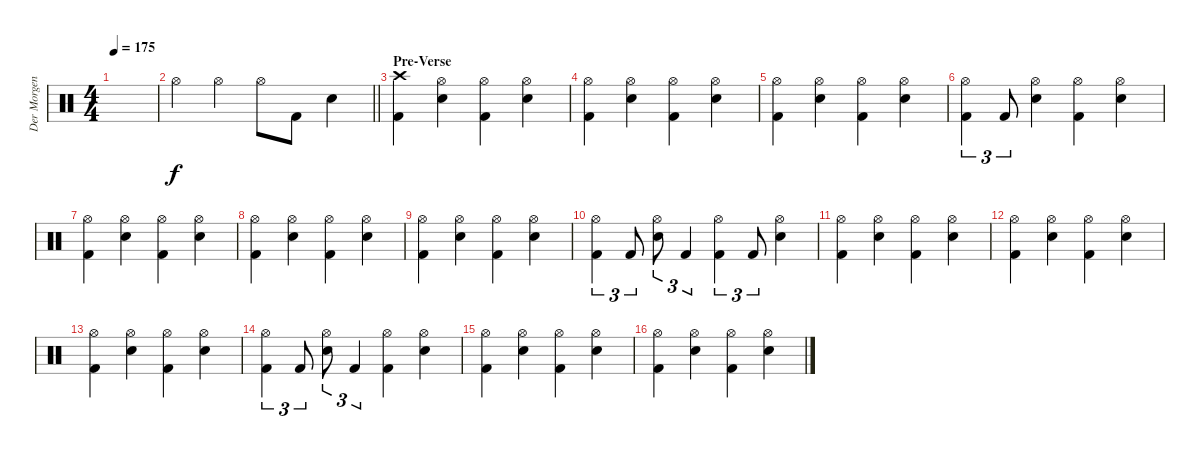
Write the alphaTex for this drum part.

\track ("Der Morgenstern" "Der Morgen") {instrument percussion}
\staff {score}
\articulation defaults
\ts (4 4)
\tempo 175
\clef neutral
\ks c
|
\barLineRight lightlight "Hi-Hat (open)".4 "Hi-Hat (open)".4 "Hi-Hat (open)".8 "Kick (hit) 2".8 "Electric Snare (hit)".4
|
\section ("" "Pre-Verse")
("Crash high (hit)" "Kick (hit) 2").4 ("Hi-Hat (open)" "Electric Snare (hit)").4 ("Hi-Hat (open)" "Kick (hit) 2").4 ("Hi-Hat (open)" "Electric Snare (hit)").4 |
("Hi-Hat (open)" "Kick (hit) 2").4 ("Hi-Hat (open)" "Electric Snare (hit)").4 ("Hi-Hat (open)" "Kick (hit) 2").4 ("Hi-Hat (open)" "Electric Snare (hit)").4 |
("Hi-Hat (open)" "Kick (hit) 2").4 ("Hi-Hat (open)" "Electric Snare (hit)").4 ("Hi-Hat (open)" "Kick (hit) 2").4 ("Hi-Hat (open)" "Electric Snare (hit)").4 |
("Hi-Hat (open)" "Kick (hit) 2").4{tu (3 2)} "Kick (hit) 2".8{tu (3 2)} ("Hi-Hat (open)" "Electric Snare (hit)").4 ("Hi-Hat (open)" "Kick (hit) 2").4 ("Hi-Hat (open)" "Electric Snare (hit)").4 |
("Hi-Hat (open)" "Kick (hit) 2").4 ("Hi-Hat (open)" "Electric Snare (hit)").4 ("Hi-Hat (open)" "Kick (hit) 2").4 ("Hi-Hat (open)" "Electric Snare (hit)").4 |
("Hi-Hat (open)" "Kick (hit) 2").4 ("Hi-Hat (open)" "Electric Snare (hit)").4 ("Hi-Hat (open)" "Kick (hit) 2").4 ("Hi-Hat (open)" "Electric Snare (hit)").4 |
("Hi-Hat (open)" "Kick (hit) 2").4 ("Hi-Hat (open)" "Electric Snare (hit)").4 ("Hi-Hat (open)" "Kick (hit) 2").4 ("Hi-Hat (open)" "Electric Snare (hit)").4 |
("Hi-Hat (open)" "Kick (hit) 2").4{tu (3 2)} "Kick (hit) 2".8{tu (3 2)} ("Hi-Hat (open)" "Electric Snare (hit)").8{tu (3 2)} "Kick (hit) 2".4{tu (3 2)} ("Hi-Hat (open)" "Kick (hit) 2").4{tu (3 2)} "Kick (hit) 2".8{tu (3 2)} ("Hi-Hat (open)" "Electric Snare (hit)").4 |
("Hi-Hat (open)" "Kick (hit) 2").4 ("Hi-Hat (open)" "Electric Snare (hit)").4 ("Hi-Hat (open)" "Kick (hit) 2").4 ("Hi-Hat (open)" "Electric Snare (hit)").4 |
("Hi-Hat (open)" "Kick (hit) 2").4 ("Hi-Hat (open)" "Electric Snare (hit)").4 ("Hi-Hat (open)" "Kick (hit) 2").4 ("Hi-Hat (open)" "Electric Snare (hit)").4 |
("Hi-Hat (open)" "Kick (hit) 2").4 ("Hi-Hat (open)" "Electric Snare (hit)").4 ("Hi-Hat (open)" "Kick (hit) 2").4 ("Hi-Hat (open)" "Electric Snare (hit)").4 |
("Hi-Hat (open)" "Kick (hit) 2").4{tu (3 2)} "Kick (hit) 2".8{tu (3 2)} ("Hi-Hat (open)" "Electric Snare (hit)").8{tu (3 2)} "Kick (hit) 2".4{tu (3 2)} ("Hi-Hat (open)" "Kick (hit) 2").4 ("Hi-Hat (open)" "Electric Snare (hit)").4 |
("Hi-Hat (open)" "Kick (hit) 2").4 ("Hi-Hat (open)" "Electric Snare (hit)").4 ("Hi-Hat (open)" "Kick (hit) 2").4 ("Hi-Hat (open)" "Electric Snare (hit)").4 |
("Hi-Hat (open)" "Kick (hit) 2").4 ("Hi-Hat (open)" "Electric Snare (hit)").4 ("Hi-Hat (open)" "Kick (hit) 2").4 ("Hi-Hat (open)" "Electric Snare (hit)").4
